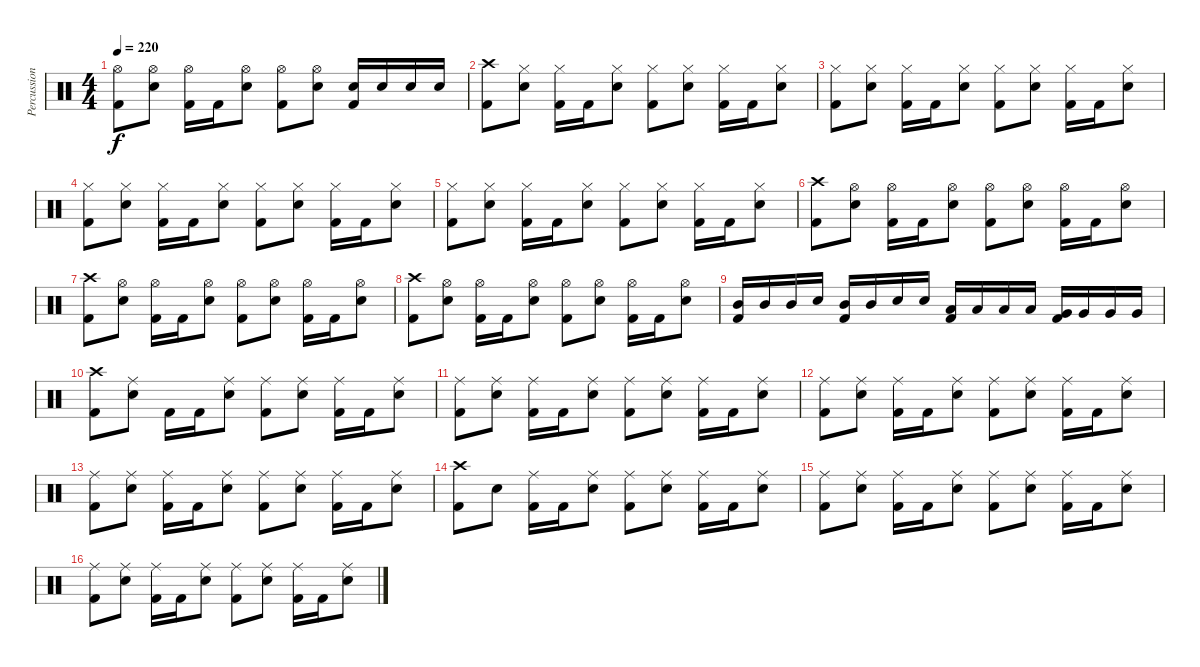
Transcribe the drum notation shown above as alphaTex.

\track ("Percussions" "Percussion") {instrument percussion}
\staff {score}
\articulation defaults
\ts (4 4)
\tempo 220
\clef neutral
\ks c
("Hi-Hat (open)" "Kick (hit) 2").8{dy f} ("Hi-Hat (open)" "Snare (hit) 2").8 ("Hi-Hat (open)" "Kick (hit) 2").16 "Kick (hit) 2".16 ("Hi-Hat (open)" "Snare (hit) 2").8 ("Hi-Hat (open)" "Kick (hit) 2").8 ("Hi-Hat (open)" "Snare (hit) 2").8 ("Snare (hit) 2" "Kick (hit) 2").16 "Snare (hit) 2".16 "Snare (hit) 2".16 "Snare (hit) 2".16 |
("Crash high (hit)" "Kick (hit) 2").8 ("Hi-Hat (closed)" "Snare (hit) 2").8 ("Hi-Hat (closed)" "Kick (hit) 2").16 "Kick (hit) 2".16 ("Hi-Hat (closed)" "Snare (hit) 2").8 ("Hi-Hat (closed)" "Kick (hit) 2").8 ("Hi-Hat (closed)" "Snare (hit) 2").8 ("Hi-Hat (closed)" "Kick (hit) 2").16 "Kick (hit) 2".16 ("Hi-Hat (closed)" "Snare (hit) 2").8 |
("Hi-Hat (closed)" "Kick (hit) 2").8 ("Hi-Hat (closed)" "Snare (hit) 2").8 ("Hi-Hat (closed)" "Kick (hit) 2").16 "Kick (hit) 2".16 ("Hi-Hat (closed)" "Snare (hit) 2").8 ("Hi-Hat (closed)" "Kick (hit) 2").8 ("Hi-Hat (closed)" "Snare (hit) 2").8 ("Hi-Hat (closed)" "Kick (hit) 2").16 "Kick (hit) 2".16 ("Hi-Hat (closed)" "Snare (hit) 2").8 |
("Hi-Hat (closed)" "Kick (hit) 2").8 ("Hi-Hat (closed)" "Snare (hit) 2").8 ("Hi-Hat (closed)" "Kick (hit) 2").16 "Kick (hit) 2".16 ("Hi-Hat (closed)" "Snare (hit) 2").8 ("Hi-Hat (closed)" "Kick (hit) 2").8 ("Hi-Hat (closed)" "Snare (hit) 2").8 ("Hi-Hat (closed)" "Kick (hit) 2").16 "Kick (hit) 2".16 ("Hi-Hat (closed)" "Snare (hit) 2").8 |
("Hi-Hat (closed)" "Kick (hit) 2").8 ("Hi-Hat (closed)" "Snare (hit) 2").8 ("Hi-Hat (closed)" "Kick (hit) 2").16 "Kick (hit) 2".16 ("Hi-Hat (closed)" "Snare (hit) 2").8 ("Hi-Hat (closed)" "Kick (hit) 2").8 ("Hi-Hat (closed)" "Snare (hit) 2").8 ("Hi-Hat (closed)" "Kick (hit) 2").16 "Kick (hit) 2".16 ("Hi-Hat (closed)" "Snare (hit) 2").8 |
("Crash high (hit)" "Kick (hit) 2").8 ("Hi-Hat (open)" "Snare (hit) 2").8 ("Hi-Hat (open)" "Kick (hit) 2").16 "Kick (hit) 2".16 ("Hi-Hat (open)" "Snare (hit) 2").8 ("Hi-Hat (open)" "Kick (hit) 2").8 ("Hi-Hat (open)" "Snare (hit) 2").8 ("Hi-Hat (open)" "Kick (hit) 2").16 "Kick (hit) 2".16 ("Hi-Hat (open)" "Snare (hit) 2").8 |
("Crash high (hit)" "Kick (hit) 2").8 ("Hi-Hat (open)" "Snare (hit) 2").8 ("Hi-Hat (open)" "Kick (hit) 2").16 "Kick (hit) 2".16 ("Hi-Hat (open)" "Snare (hit) 2").8 ("Hi-Hat (open)" "Kick (hit) 2").8 ("Hi-Hat (open)" "Snare (hit) 2").8 ("Hi-Hat (open)" "Kick (hit) 2").16 "Kick (hit) 2".16 ("Hi-Hat (open)" "Snare (hit) 2").8 |
("Crash high (hit)" "Kick (hit) 2").8 ("Hi-Hat (open)" "Snare (hit) 2").8 ("Hi-Hat (open)" "Kick (hit) 2").16 "Kick (hit) 2".16 ("Hi-Hat (open)" "Snare (hit) 2").8 ("Hi-Hat (open)" "Kick (hit) 2").8 ("Hi-Hat (open)" "Snare (hit) 2").8 ("Hi-Hat (open)" "Kick (hit) 2").16 "Kick (hit) 2".16 ("Hi-Hat (open)" "Snare (hit) 2").8 |
("Mid Tom (hit)" "Kick (hit) 2").16 "Mid Tom (hit)".16 "Mid Tom (hit)".16 "Snare (hit) 2".16 ("Mid Tom (hit)" "Kick (hit) 2").16 "Mid Tom (hit)".16 "Snare (hit) 2".16 "Snare (hit) 2".16 ("Low Tom (hit)" "Kick (hit) 2").16 "Low Tom (hit)".16 "Low Tom (hit)".16 "Low Tom (hit)".16 ("Very Low Tom (hit)" "Kick (hit) 2").16 "Very Low Tom (hit)".16 "Very Low Tom (hit)".16 "Very Low Tom (hit)".16 |
("Crash high (hit)" "Kick (hit) 2").8 ("Ride (middle)" "Snare (hit) 2").8 "Kick (hit) 2".16 "Kick (hit) 2".16 ("Ride (middle)" "Snare (hit) 2").8 ("Ride (middle)" "Kick (hit) 2").8 ("Ride (middle)" "Snare (hit) 2").8 ("Ride (middle)" "Kick (hit) 2").16 "Kick (hit) 2".16 ("Ride (middle)" "Snare (hit) 2").8 |
("Ride (middle)" "Kick (hit) 2").8 ("Ride (middle)" "Snare (hit) 2").8 ("Ride (middle)" "Kick (hit) 2").16 "Kick (hit) 2".16 ("Ride (middle)" "Snare (hit) 2").8 ("Ride (middle)" "Kick (hit) 2").8 ("Ride (middle)" "Snare (hit) 2").8 ("Ride (middle)" "Kick (hit) 2").16 "Kick (hit) 2".16 ("Ride (middle)" "Snare (hit) 2").8 |
("Ride (middle)" "Kick (hit) 2").8 ("Ride (middle)" "Snare (hit) 2").8 ("Ride (middle)" "Kick (hit) 2").16 "Kick (hit) 2".16 ("Ride (middle)" "Snare (hit) 2").8 ("Ride (middle)" "Kick (hit) 2").8 ("Ride (middle)" "Snare (hit) 2").8 ("Ride (middle)" "Kick (hit) 2").16 "Kick (hit) 2".16 ("Ride (middle)" "Snare (hit) 2").8 |
("Ride (middle)" "Kick (hit) 2").8 ("Ride (middle)" "Snare (hit) 2").8 ("Ride (middle)" "Kick (hit) 2").16 "Kick (hit) 2".16 ("Ride (middle)" "Snare (hit) 2").8 ("Ride (middle)" "Kick (hit) 2").8 ("Ride (middle)" "Snare (hit) 2").8 ("Ride (middle)" "Kick (hit) 2").16 "Kick (hit) 2".16 ("Ride (middle)" "Snare (hit) 2").8 |
("Crash high (hit)" "Kick (hit) 2").8 "Snare (hit) 2".8 ("Ride (middle)" "Kick (hit) 2").16 "Kick (hit) 2".16 ("Ride (middle)" "Snare (hit) 2").8 ("Ride (middle)" "Kick (hit) 2").8 ("Ride (middle)" "Snare (hit) 2").8 ("Ride (middle)" "Kick (hit) 2").16 "Kick (hit) 2".16 ("Ride (middle)" "Snare (hit) 2").8 |
("Ride (middle)" "Kick (hit) 2").8 ("Ride (middle)" "Snare (hit) 2").8 ("Ride (middle)" "Kick (hit) 2").16 "Kick (hit) 2".16 ("Ride (middle)" "Snare (hit) 2").8 ("Ride (middle)" "Kick (hit) 2").8 ("Ride (middle)" "Snare (hit) 2").8 ("Ride (middle)" "Kick (hit) 2").16 "Kick (hit) 2".16 ("Ride (middle)" "Snare (hit) 2").8 |
("Ride (middle)" "Kick (hit) 2").8 ("Ride (middle)" "Snare (hit) 2").8 ("Ride (middle)" "Kick (hit) 2").16 "Kick (hit) 2".16 ("Ride (middle)" "Snare (hit) 2").8 ("Ride (middle)" "Kick (hit) 2").8 ("Ride (middle)" "Snare (hit) 2").8 ("Ride (middle)" "Kick (hit) 2").16 "Kick (hit) 2".16 ("Ride (middle)" "Snare (hit) 2").8
